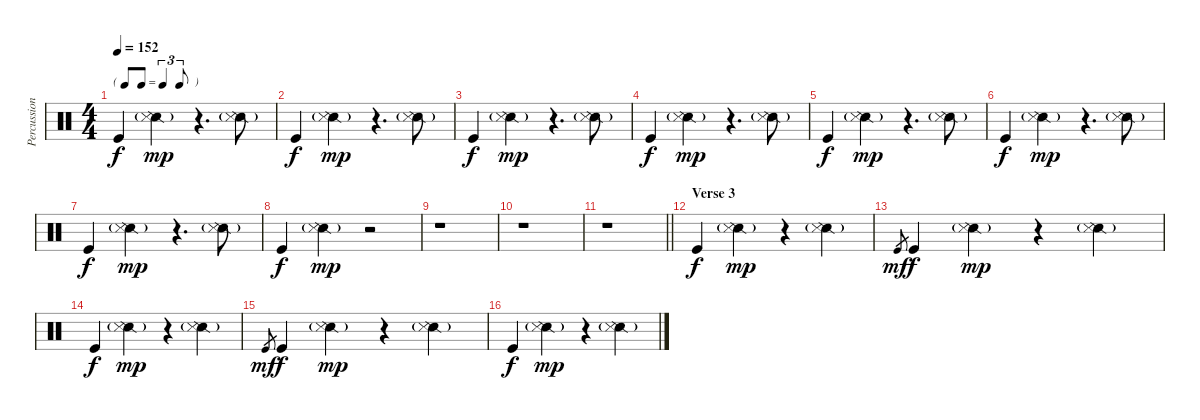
\track ("Percussion" "Percussion") {instrument percussion}
\staff {score}
\articulation defaults
\ts (4 4)
\tf triplet8th
\tempo 152
\clef neutral
\ks c "Kick (hit)".4{dy f}
("Snare (side stick) 2"{g} "Snare (side stick) 3").4{dy mp} r.4{d} ("Snare (side stick) 2"{g} "Snare (side stick) 3").8 |
"Kick (hit)".4{dy f} ("Snare (side stick) 2"{g} "Snare (side stick) 3").4{dy mp} r.4{d} ("Snare (side stick) 2"{g} "Snare (side stick) 3").8 |
"Kick (hit)".4{dy f} ("Snare (side stick) 2"{g} "Snare (side stick) 3").4{dy mp} r.4{d} ("Snare (side stick) 2"{g} "Snare (side stick) 3").8 |
"Kick (hit)".4{dy f} ("Snare (side stick) 2"{g} "Snare (side stick) 3").4{dy mp} r.4{d} ("Snare (side stick) 2"{g} "Snare (side stick) 3").8 |
"Kick (hit)".4{dy f} ("Snare (side stick) 2"{g} "Snare (side stick) 3").4{dy mp} r.4{d} ("Snare (side stick) 2"{g} "Snare (side stick) 3").8 |
"Kick (hit)".4{dy f} ("Snare (side stick) 2"{g} "Snare (side stick) 3").4{dy mp} r.4{d} ("Snare (side stick) 2"{g} "Snare (side stick) 3").8 |
"Kick (hit)".4{dy f} ("Snare (side stick) 2"{g} "Snare (side stick) 3").4{dy mp} r.4{d} ("Snare (side stick) 2"{g} "Snare (side stick) 3").8 |
"Kick (hit)".4{dy f} ("Snare (side stick) 2"{g} "Snare (side stick) 3").4{dy mp} r.2 |
r.1 |
r.1 |
\barLineRight lightlight
r.1 |
\section ("" "Verse 3")
"Kick (hit)".4{dy f} ("Snare (side stick) 2"{g} "Snare (side stick) 3").4{dy mp} r.4 ("Snare (side stick) 2"{g} "Snare (side stick) 3").4 |
"Kick (hit)".8{gr dy mf} "Kick (hit)".4{dy f} ("Snare (side stick) 2"{g} "Snare (side stick) 3").4{dy mp} r.4 ("Snare (side stick) 2"{g} "Snare (side stick) 3").4 |
"Kick (hit)".4{dy f} ("Snare (side stick) 2"{g} "Snare (side stick) 3").4{dy mp} r.4 ("Snare (side stick) 2"{g} "Snare (side stick) 3").4 |
"Kick (hit)".8{gr dy mf} "Kick (hit)".4{dy f} ("Snare (side stick) 2"{g} "Snare (side stick) 3").4{dy mp} r.4 ("Snare (side stick) 2"{g} "Snare (side stick) 3").4 |
"Kick (hit)".4{dy f} ("Snare (side stick) 2"{g} "Snare (side stick) 3").4{dy mp} r.4 ("Snare (side stick) 2"{g} "Snare (side stick) 3").4
